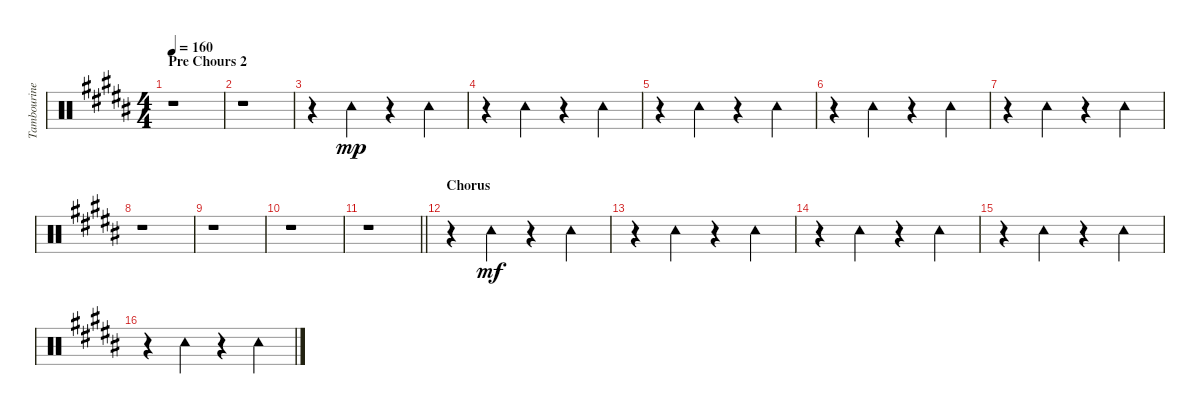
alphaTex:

\track ("Tambourine" "Tambourine") {instrument percussion}
\staff {score}
\articulation defaults
\ts (4 4)
\section ("" "Pre Chours 2")
\tempo 160
\clef neutral
\ks b
r.1{dy mp} |
r.1 |
r.4 "Tambourine (hit)".4 r.4 "Tambourine (hit)".4 |
r.4 "Tambourine (hit)".4 r.4 "Tambourine (hit)".4 |
r.4 "Tambourine (hit)".4 r.4 "Tambourine (hit)".4 |
r.4 "Tambourine (hit)".4 r.4 "Tambourine (hit)".4 |
r.4 "Tambourine (hit)".4 r.4 "Tambourine (hit)".4 |
r.1 |
r.1 |
r.1 |
\barLineRight lightlight
r.1 |
\section ("" "Chorus")
r.4 "Tambourine (hit)".4{dy mf} r.4 "Tambourine (hit)".4 |
r.4 "Tambourine (hit)".4 r.4 "Tambourine (hit)".4 |
r.4 "Tambourine (hit)".4 r.4 "Tambourine (hit)".4 |
r.4 "Tambourine (hit)".4 r.4 "Tambourine (hit)".4 |
r.4 "Tambourine (hit)".4 r.4 "Tambourine (hit)".4
